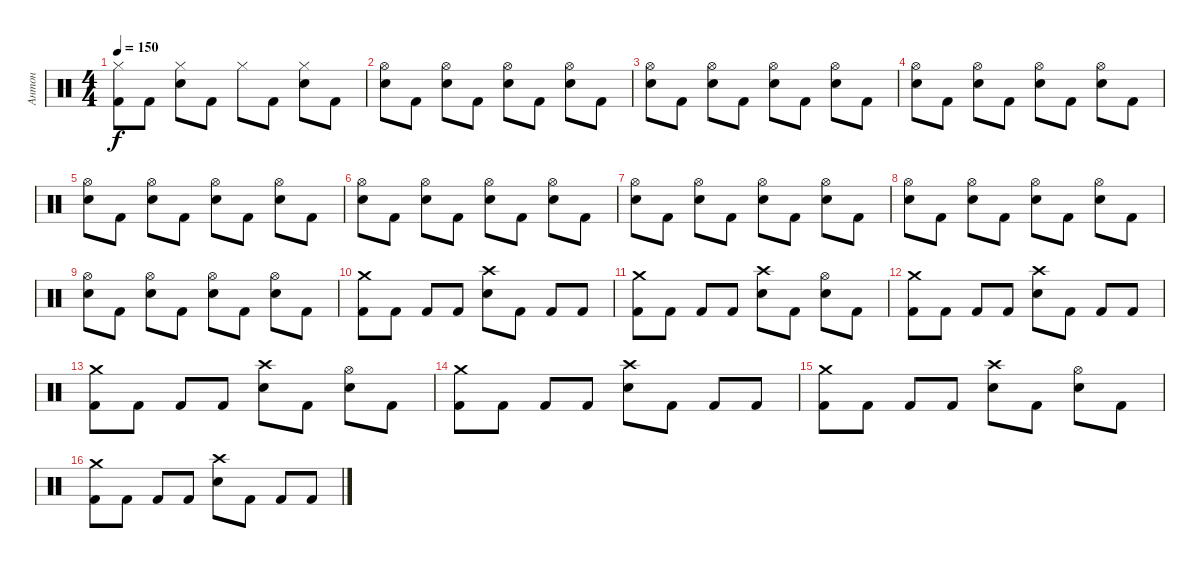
\track ("Антон" "Антон") {instrument percussion}
\staff {score}
\articulation defaults
\ts (4 4)
\tempo 150
\clef neutral
\ks c
("Hi-Hat (closed)" "Kick (hit) 2").8{dy f} "Kick (hit) 2".8 ("Hi-Hat (closed)" "Electric Snare (hit)").8 "Kick (hit) 2".8 "Hi-Hat (closed)".8 "Kick (hit) 2".8 ("Hi-Hat (closed)" "Electric Snare (hit)").8 "Kick (hit) 2".8 |
("Hi-Hat (open)" "Electric Snare (hit)").8 "Kick (hit) 2".8 ("Hi-Hat (open)" "Electric Snare (hit)").8 "Kick (hit) 2".8 ("Hi-Hat (open)" "Electric Snare (hit)").8 "Kick (hit) 2".8 ("Hi-Hat (open)" "Electric Snare (hit)").8 "Kick (hit) 2".8 |
("Hi-Hat (open)" "Electric Snare (hit)").8 "Kick (hit) 2".8 ("Hi-Hat (open)" "Electric Snare (hit)").8 "Kick (hit) 2".8 ("Hi-Hat (open)" "Electric Snare (hit)").8 "Kick (hit) 2".8 ("Hi-Hat (open)" "Electric Snare (hit)").8 "Kick (hit) 2".8 |
("Hi-Hat (open)" "Electric Snare (hit)").8 "Kick (hit) 2".8 ("Hi-Hat (open)" "Electric Snare (hit)").8 "Kick (hit) 2".8 ("Hi-Hat (open)" "Electric Snare (hit)").8 "Kick (hit) 2".8 ("Hi-Hat (open)" "Electric Snare (hit)").8 "Kick (hit) 2".8 |
("Hi-Hat (open)" "Electric Snare (hit)").8 "Kick (hit) 2".8 ("Hi-Hat (open)" "Electric Snare (hit)").8 "Kick (hit) 2".8 ("Hi-Hat (open)" "Electric Snare (hit)").8 "Kick (hit) 2".8 ("Hi-Hat (open)" "Electric Snare (hit)").8 "Kick (hit) 2".8 |
("Hi-Hat (open)" "Electric Snare (hit)").8 "Kick (hit) 2".8 ("Hi-Hat (open)" "Electric Snare (hit)").8 "Kick (hit) 2".8 ("Hi-Hat (open)" "Electric Snare (hit)").8 "Kick (hit) 2".8 ("Hi-Hat (open)" "Electric Snare (hit)").8 "Kick (hit) 2".8 |
("Hi-Hat (open)" "Electric Snare (hit)").8 "Kick (hit) 2".8 ("Hi-Hat (open)" "Electric Snare (hit)").8 "Kick (hit) 2".8 ("Hi-Hat (open)" "Electric Snare (hit)").8 "Kick (hit) 2".8 ("Hi-Hat (open)" "Electric Snare (hit)").8 "Kick (hit) 2".8 |
("Hi-Hat (open)" "Electric Snare (hit)").8 "Kick (hit) 2".8 ("Hi-Hat (open)" "Electric Snare (hit)").8 "Kick (hit) 2".8 ("Hi-Hat (open)" "Electric Snare (hit)").8 "Kick (hit) 2".8 ("Hi-Hat (open)" "Electric Snare (hit)").8 "Kick (hit) 2".8 |
("Hi-Hat (open)" "Electric Snare (hit)").8 "Kick (hit) 2".8 ("Hi-Hat (open)" "Electric Snare (hit)").8 "Kick (hit) 2".8 ("Hi-Hat (open)" "Electric Snare (hit)").8 "Kick (hit) 2".8 ("Hi-Hat (open)" "Electric Snare (hit)").8 "Kick (hit) 2".8 |
("Crash medium (hit)" "Kick (hit) 2").8 "Kick (hit) 2".8 "Kick (hit) 2".8 "Kick (hit) 2".8 ("Crash high (hit)" "Electric Snare (hit)").8 "Kick (hit) 2".8 "Kick (hit) 2".8 "Kick (hit) 2".8 |
("Crash medium (hit)" "Kick (hit) 2").8 "Kick (hit) 2".8 "Kick (hit) 2".8 "Kick (hit) 2".8 ("Crash high (hit)" "Electric Snare (hit)").8 "Kick (hit) 2".8 ("Hi-Hat (open)" "Electric Snare (hit)").8 "Kick (hit) 2".8 |
("Crash medium (hit)" "Kick (hit) 2").8 "Kick (hit) 2".8 "Kick (hit) 2".8 "Kick (hit) 2".8 ("Crash high (hit)" "Electric Snare (hit)").8 "Kick (hit) 2".8 "Kick (hit) 2".8 "Kick (hit) 2".8 |
("Crash medium (hit)" "Kick (hit) 2").8 "Kick (hit) 2".8 "Kick (hit) 2".8 "Kick (hit) 2".8 ("Crash high (hit)" "Electric Snare (hit)").8 "Kick (hit) 2".8 ("Hi-Hat (open)" "Electric Snare (hit)").8 "Kick (hit) 2".8 |
("Crash medium (hit)" "Kick (hit) 2").8 "Kick (hit) 2".8 "Kick (hit) 2".8 "Kick (hit) 2".8 ("Crash high (hit)" "Electric Snare (hit)").8 "Kick (hit) 2".8 "Kick (hit) 2".8 "Kick (hit) 2".8 |
("Crash medium (hit)" "Kick (hit) 2").8 "Kick (hit) 2".8 "Kick (hit) 2".8 "Kick (hit) 2".8 ("Crash high (hit)" "Electric Snare (hit)").8 "Kick (hit) 2".8 ("Hi-Hat (open)" "Electric Snare (hit)").8 "Kick (hit) 2".8 |
("Crash medium (hit)" "Kick (hit) 2").8 "Kick (hit) 2".8 "Kick (hit) 2".8 "Kick (hit) 2".8 ("Crash high (hit)" "Electric Snare (hit)").8 "Kick (hit) 2".8 "Kick (hit) 2".8 "Kick (hit) 2".8
